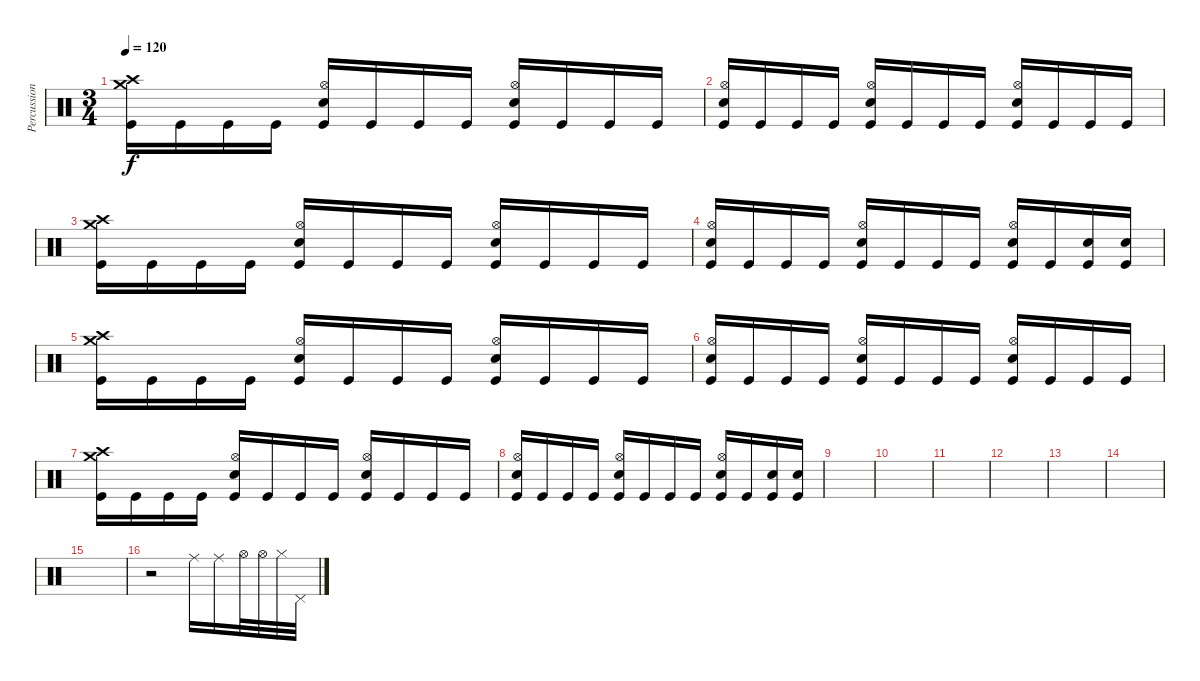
\track ("Percussion" "Percussion") {instrument percussion}
\staff {score}
\articulation defaults
\ts (3 4)
\tempo 120
\clef neutral
\ks c
("Crash medium (hit)" "Crash high (hit)" "Kick (hit)").16{dy f} "Kick (hit)".16 "Kick (hit)".16 "Kick (hit)".16 ("Hi-Hat (open)" "Snare (hit) 2" "Kick (hit)").16 "Kick (hit)".16 "Kick (hit)".16 "Kick (hit)".16 ("Hi-Hat (open)" "Snare (hit) 2" "Kick (hit)").16 "Kick (hit)".16 "Kick (hit)".16 "Kick (hit)".16 |
("Hi-Hat (open)" "Snare (hit) 2" "Kick (hit)").16 "Kick (hit)".16 "Kick (hit)".16 "Kick (hit)".16 ("Hi-Hat (open)" "Snare (hit) 2" "Kick (hit)").16 "Kick (hit)".16 "Kick (hit)".16 "Kick (hit)".16 ("Hi-Hat (open)" "Snare (hit) 2" "Kick (hit)").16 "Kick (hit)".16 "Kick (hit)".16 "Kick (hit)".16 |
("Crash medium (hit)" "Crash high (hit)" "Kick (hit)").16 "Kick (hit)".16 "Kick (hit)".16 "Kick (hit)".16 ("Hi-Hat (open)" "Snare (hit) 2" "Kick (hit)").16 "Kick (hit)".16 "Kick (hit)".16 "Kick (hit)".16 ("Hi-Hat (open)" "Snare (hit) 2" "Kick (hit)").16 "Kick (hit)".16 "Kick (hit)".16 "Kick (hit)".16 |
("Hi-Hat (open)" "Snare (hit) 2" "Kick (hit)").16 "Kick (hit)".16 "Kick (hit)".16 "Kick (hit)".16 ("Hi-Hat (open)" "Snare (hit) 2" "Kick (hit)").16 "Kick (hit)".16 "Kick (hit)".16 "Kick (hit)".16 ("Hi-Hat (open)" "Snare (hit) 2" "Kick (hit)").16 "Kick (hit)".16 ("Snare (hit) 2" "Kick (hit)").16 ("Snare (hit) 2" "Kick (hit)").16 |
("Crash medium (hit)" "Crash high (hit)" "Kick (hit)").16 "Kick (hit)".16 "Kick (hit)".16 "Kick (hit)".16 ("Hi-Hat (open)" "Snare (hit) 2" "Kick (hit)").16 "Kick (hit)".16 "Kick (hit)".16 "Kick (hit)".16 ("Hi-Hat (open)" "Snare (hit) 2" "Kick (hit)").16 "Kick (hit)".16 "Kick (hit)".16 "Kick (hit)".16 |
("Hi-Hat (open)" "Snare (hit) 2" "Kick (hit)").16 "Kick (hit)".16 "Kick (hit)".16 "Kick (hit)".16 ("Hi-Hat (open)" "Snare (hit) 2" "Kick (hit)").16 "Kick (hit)".16 "Kick (hit)".16 "Kick (hit)".16 ("Hi-Hat (open)" "Snare (hit) 2" "Kick (hit)").16 "Kick (hit)".16 "Kick (hit)".16 "Kick (hit)".16 |
("Crash medium (hit)" "Crash high (hit)" "Kick (hit)").16 "Kick (hit)".16 "Kick (hit)".16 "Kick (hit)".16 ("Hi-Hat (open)" "Snare (hit) 2" "Kick (hit)").16 "Kick (hit)".16 "Kick (hit)".16 "Kick (hit)".16 ("Hi-Hat (open)" "Snare (hit) 2" "Kick (hit)").16 "Kick (hit)".16 "Kick (hit)".16 "Kick (hit)".16 |
("Hi-Hat (open)" "Snare (hit) 2" "Kick (hit)").16 "Kick (hit)".16 "Kick (hit)".16 "Kick (hit)".16 ("Hi-Hat (open)" "Snare (hit) 2" "Kick (hit)").16 "Kick (hit)".16 "Kick (hit)".16 "Kick (hit)".16 ("Hi-Hat (open)" "Snare (hit) 2" "Kick (hit)").16 "Kick (hit)".16 ("Snare (hit) 2" "Kick (hit)").16 ("Snare (hit) 2" "Kick (hit)").16 |
|
|
|
|
|
|
|
r.2 "Ride (middle)".16 "Ride (middle)".16 "Hi-Hat (open)".32 "Hi-Hat (open)".32 "Hi-Hat (closed)".32 "Pedal Hi-Hat (hit)".32
